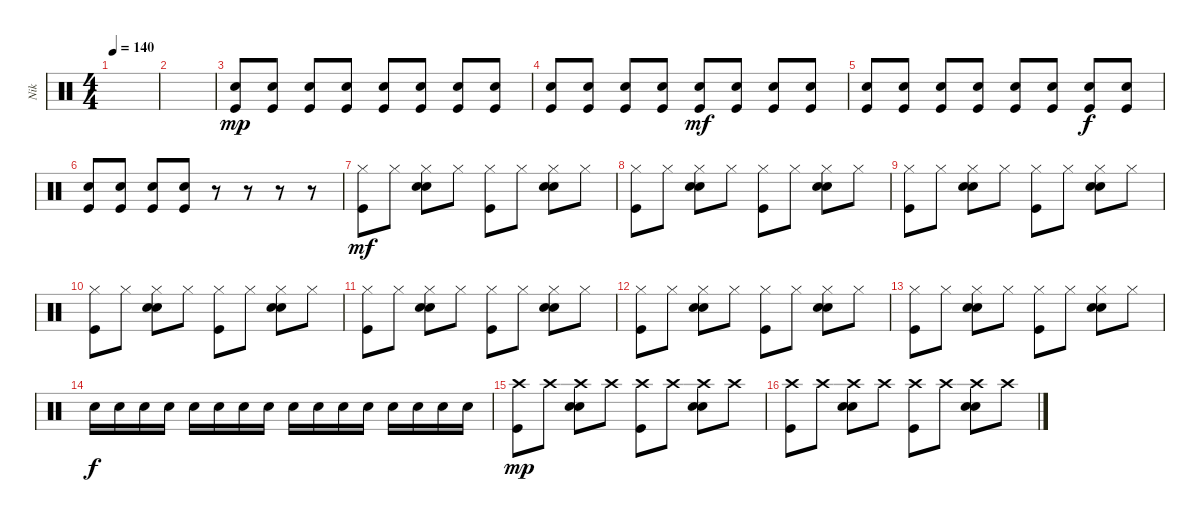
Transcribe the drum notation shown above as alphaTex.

\track ("Nik" "Nik") {instrument percussion}
\staff {score}
\articulation defaults
\ts (4 4)
\tempo 140
\clef neutral
\ks c
|
|
("Kick (hit)" "Electric Snare (hit)").8{dy mp} ("Kick (hit)" "Electric Snare (hit)").8 ("Kick (hit)" "Electric Snare (hit)").8 ("Kick (hit)" "Electric Snare (hit)").8 ("Kick (hit)" "Electric Snare (hit)").8 ("Kick (hit)" "Electric Snare (hit)").8 ("Kick (hit)" "Electric Snare (hit)").8 ("Kick (hit)" "Electric Snare (hit)").8 |
("Kick (hit)" "Electric Snare (hit)").8 ("Kick (hit)" "Electric Snare (hit)").8 ("Kick (hit)" "Electric Snare (hit)").8 ("Kick (hit)" "Electric Snare (hit)").8 ("Kick (hit)" "Electric Snare (hit)").8{dy mf} ("Kick (hit)" "Electric Snare (hit)").8 ("Kick (hit)" "Electric Snare (hit)").8 ("Kick (hit)" "Electric Snare (hit)").8 |
("Kick (hit)" "Electric Snare (hit)").8 ("Kick (hit)" "Electric Snare (hit)").8 ("Kick (hit)" "Electric Snare (hit)").8 ("Kick (hit)" "Electric Snare (hit)").8 ("Kick (hit)" "Electric Snare (hit)").8 ("Kick (hit)" "Electric Snare (hit)").8 ("Kick (hit)" "Electric Snare (hit)").8{dy f} ("Kick (hit)" "Electric Snare (hit)").8 |
("Kick (hit)" "Electric Snare (hit)").8 ("Kick (hit)" "Electric Snare (hit)").8 ("Kick (hit)" "Electric Snare (hit)").8 ("Kick (hit)" "Electric Snare (hit)").8 r.8 r.8 r.8 r.8 |
("Kick (hit)" "Hi-Hat (closed)").8{dy mf} "Hi-Hat (closed)".8 ("Electric Snare (hit)" "Electric Snare (hit)" "Hi-Hat (closed)").8 "Hi-Hat (closed)".8 ("Kick (hit)" "Hi-Hat (closed)").8 "Hi-Hat (closed)".8 ("Electric Snare (hit)" "Electric Snare (hit)" "Hi-Hat (closed)").8 "Hi-Hat (closed)".8 |
("Kick (hit)" "Hi-Hat (closed)").8 "Hi-Hat (closed)".8 ("Electric Snare (hit)" "Electric Snare (hit)" "Hi-Hat (closed)").8 "Hi-Hat (closed)".8 ("Kick (hit)" "Hi-Hat (closed)").8 "Hi-Hat (closed)".8 ("Electric Snare (hit)" "Electric Snare (hit)" "Hi-Hat (closed)").8 "Hi-Hat (closed)".8 |
("Kick (hit)" "Hi-Hat (closed)").8 "Hi-Hat (closed)".8 ("Electric Snare (hit)" "Electric Snare (hit)" "Hi-Hat (closed)").8 "Hi-Hat (closed)".8 ("Kick (hit)" "Hi-Hat (closed)").8 "Hi-Hat (closed)".8 ("Electric Snare (hit)" "Electric Snare (hit)" "Hi-Hat (closed)").8 "Hi-Hat (closed)".8 |
("Kick (hit)" "Hi-Hat (closed)").8 "Hi-Hat (closed)".8 ("Electric Snare (hit)" "Electric Snare (hit)" "Hi-Hat (closed)").8 "Hi-Hat (closed)".8 ("Kick (hit)" "Hi-Hat (closed)").8 "Hi-Hat (closed)".8 ("Electric Snare (hit)" "Electric Snare (hit)" "Hi-Hat (closed)").8 "Hi-Hat (closed)".8 |
("Kick (hit)" "Hi-Hat (closed)").8 "Hi-Hat (closed)".8 ("Electric Snare (hit)" "Electric Snare (hit)" "Hi-Hat (closed)").8 "Hi-Hat (closed)".8 ("Kick (hit)" "Hi-Hat (closed)").8 "Hi-Hat (closed)".8 ("Electric Snare (hit)" "Electric Snare (hit)" "Hi-Hat (closed)").8 "Hi-Hat (closed)".8 |
("Kick (hit)" "Hi-Hat (closed)").8 "Hi-Hat (closed)".8 ("Electric Snare (hit)" "Electric Snare (hit)" "Hi-Hat (closed)").8 "Hi-Hat (closed)".8 ("Kick (hit)" "Hi-Hat (closed)").8 "Hi-Hat (closed)".8 ("Electric Snare (hit)" "Electric Snare (hit)" "Hi-Hat (closed)").8 "Hi-Hat (closed)".8 |
("Kick (hit)" "Hi-Hat (closed)").8 "Hi-Hat (closed)".8 ("Electric Snare (hit)" "Electric Snare (hit)" "Hi-Hat (closed)").8 "Hi-Hat (closed)".8 ("Kick (hit)" "Hi-Hat (closed)").8 "Hi-Hat (closed)".8 ("Electric Snare (hit)" "Electric Snare (hit)" "Hi-Hat (closed)").8 "Hi-Hat (closed)".8 |
"Electric Snare (hit)".16{dy f} "Electric Snare (hit)".16 "Electric Snare (hit)".16 "Electric Snare (hit)".16 "Electric Snare (hit)".16 "Electric Snare (hit)".16 "Electric Snare (hit)".16 "Electric Snare (hit)".16 "Electric Snare (hit)".16 "Electric Snare (hit)".16 "Electric Snare (hit)".16 "Electric Snare (hit)".16 "Electric Snare (hit)".16 "Electric Snare (hit)".16 "Electric Snare (hit)".16 "Electric Snare (hit)".16 |
("Kick (hit)" "Crash high (hit)").8{dy mp} "Crash high (hit)".8 ("Electric Snare (hit)" "Electric Snare (hit)" "Crash high (hit)").8 "Crash high (hit)".8 ("Kick (hit)" "Crash high (hit)").8 "Crash high (hit)".8 ("Electric Snare (hit)" "Electric Snare (hit)" "Crash high (hit)").8 "Crash high (hit)".8 |
("Kick (hit)" "Crash high (hit)").8 "Crash high (hit)".8 ("Electric Snare (hit)" "Electric Snare (hit)" "Crash high (hit)").8 "Crash high (hit)".8 ("Kick (hit)" "Crash high (hit)").8 "Crash high (hit)".8 ("Electric Snare (hit)" "Electric Snare (hit)" "Crash high (hit)").8 "Crash high (hit)".8
